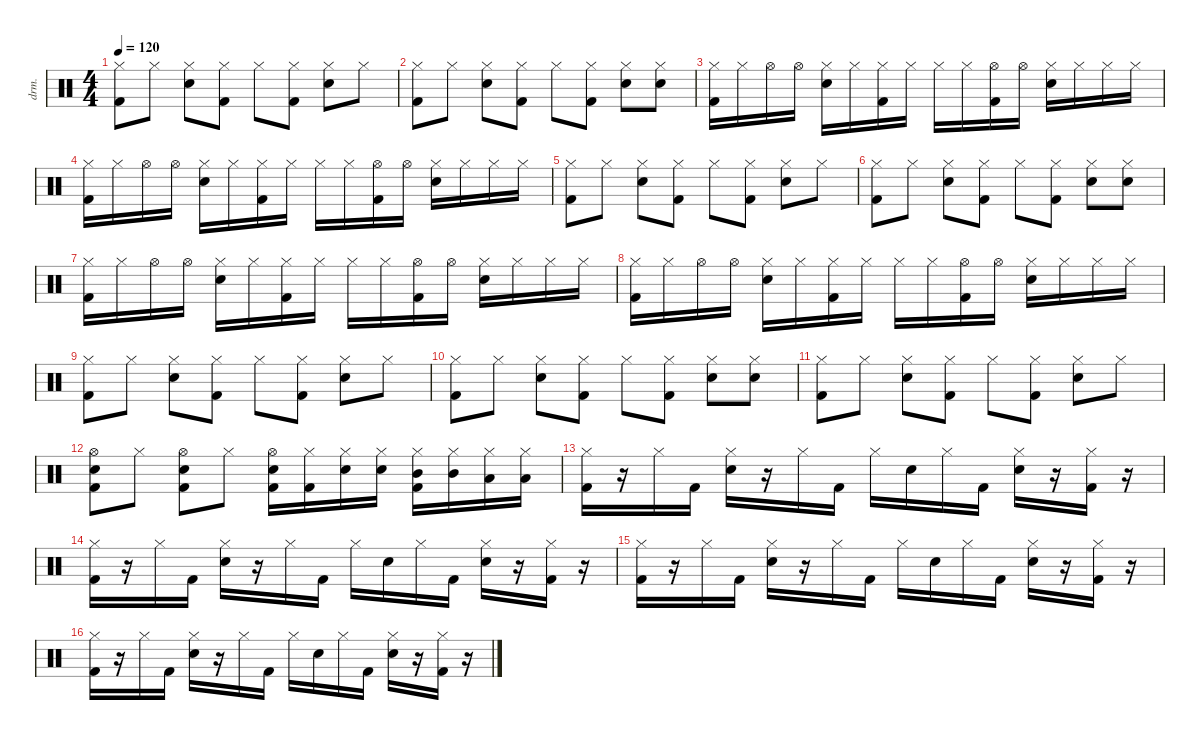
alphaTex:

\defaultSystemsLayout 4
\hideDynamics
\bracketExtendMode nobrackets
\otherSystemsTrackNameOrientation horizontal
\track ("Drumkit" "drm.") {instrument percussion}
\staff {score}
\articulation defaults
\ts (4 4)
\tempo 120
\clef neutral
\ks c
("Hi-Hat (closed)" "Kick (hit) 2").8{dy mf beam Down} "Hi-Hat (closed)".8{beam Down} ("Hi-Hat (closed)" "Snare (hit) 2").8{beam Down} ("Hi-Hat (closed)" "Kick (hit) 2").8{beam Down} "Hi-Hat (closed)".8{beam Down} ("Hi-Hat (closed)" "Kick (hit) 2").8{beam Down} ("Hi-Hat (closed)" "Snare (hit) 2").8{beam Down} "Hi-Hat (closed)".8{beam Down} |
("Hi-Hat (closed)" "Kick (hit) 2").8{beam Down} "Hi-Hat (closed)".8{beam Down} ("Hi-Hat (closed)" "Snare (hit) 2").8{beam Down} ("Hi-Hat (closed)" "Kick (hit) 2").8{beam Down} "Hi-Hat (closed)".8{beam Down} ("Hi-Hat (closed)" "Kick (hit) 2").8{beam Down} ("Hi-Hat (closed)" "Snare (hit) 2").8{beam Down} ("Snare (hit) 2" "Hi-Hat (closed)").8{beam Down} |
("Hi-Hat (closed)" "Kick (hit) 2").16{beam Down} "Hi-Hat (closed)".16{beam Down} "Hi-Hat (open)".16{beam Down} "Hi-Hat (open)".16{beam Down} ("Hi-Hat (closed)" "Snare (hit) 2").16{beam Down} "Hi-Hat (closed)".16{beam Down} ("Hi-Hat (closed)" "Kick (hit) 2").16{beam Down} "Hi-Hat (closed)".16{beam Down} "Hi-Hat (closed)".16{beam Down} "Hi-Hat (closed)".16{beam Down} ("Hi-Hat (open)" "Kick (hit) 2").16{beam Down} "Hi-Hat (open)".16{beam Down} ("Hi-Hat (closed)" "Snare (hit) 2").16{beam Down} "Hi-Hat (closed)".16{beam Down} "Hi-Hat (closed)".16{beam Down} "Hi-Hat (closed)".16{beam Down} |
("Hi-Hat (closed)" "Kick (hit) 2").16{beam Down} "Hi-Hat (closed)".16{beam Down} "Hi-Hat (open)".16{beam Down} "Hi-Hat (open)".16{beam Down} ("Hi-Hat (closed)" "Snare (hit) 2").16{beam Down} "Hi-Hat (closed)".16{beam Down} ("Hi-Hat (closed)" "Kick (hit) 2").16{beam Down} "Hi-Hat (closed)".16{beam Down} "Hi-Hat (closed)".16{beam Down} "Hi-Hat (closed)".16{beam Down} ("Hi-Hat (open)" "Kick (hit) 2").16{beam Down} "Hi-Hat (open)".16{beam Down} ("Hi-Hat (closed)" "Snare (hit) 2").16{beam Down} "Hi-Hat (closed)".16{beam Down} "Hi-Hat (closed)".16{beam Down} "Hi-Hat (closed)".16{beam Down} |
("Hi-Hat (closed)" "Kick (hit) 2").8{beam Down} "Hi-Hat (closed)".8{beam Down} ("Hi-Hat (closed)" "Snare (hit) 2").8{beam Down} ("Hi-Hat (closed)" "Kick (hit) 2").8{beam Down} "Hi-Hat (closed)".8{beam Down} ("Hi-Hat (closed)" "Kick (hit) 2").8{beam Down} ("Hi-Hat (closed)" "Snare (hit) 2").8{beam Down} "Hi-Hat (closed)".8{beam Down} |
("Hi-Hat (closed)" "Kick (hit) 2").8{beam Down} "Hi-Hat (closed)".8{beam Down} ("Hi-Hat (closed)" "Snare (hit) 2").8{beam Down} ("Hi-Hat (closed)" "Kick (hit) 2").8{beam Down} "Hi-Hat (closed)".8{beam Down} ("Hi-Hat (closed)" "Kick (hit) 2").8{beam Down} ("Hi-Hat (closed)" "Snare (hit) 2").8{beam Down} ("Snare (hit) 2" "Hi-Hat (closed)").8{beam Down} |
("Hi-Hat (closed)" "Kick (hit) 2").16{beam Down} "Hi-Hat (closed)".16{beam Down} "Hi-Hat (open)".16{beam Down} "Hi-Hat (open)".16{beam Down} ("Hi-Hat (closed)" "Snare (hit) 2").16{beam Down} "Hi-Hat (closed)".16{beam Down} ("Hi-Hat (closed)" "Kick (hit) 2").16{beam Down} "Hi-Hat (closed)".16{beam Down} "Hi-Hat (closed)".16{beam Down} "Hi-Hat (closed)".16{beam Down} ("Hi-Hat (open)" "Kick (hit) 2").16{beam Down} "Hi-Hat (open)".16{beam Down} ("Hi-Hat (closed)" "Snare (hit) 2").16{beam Down} "Hi-Hat (closed)".16{beam Down} "Hi-Hat (closed)".16{beam Down} "Hi-Hat (closed)".16{beam Down} |
("Hi-Hat (closed)" "Kick (hit) 2").16{beam Down} "Hi-Hat (closed)".16{beam Down} "Hi-Hat (open)".16{beam Down} "Hi-Hat (open)".16{beam Down} ("Hi-Hat (closed)" "Snare (hit) 2").16{beam Down} "Hi-Hat (closed)".16{beam Down} ("Hi-Hat (closed)" "Kick (hit) 2").16{beam Down} "Hi-Hat (closed)".16{beam Down} "Hi-Hat (closed)".16{beam Down} "Hi-Hat (closed)".16{beam Down} ("Hi-Hat (open)" "Kick (hit) 2").16{beam Down} "Hi-Hat (open)".16{beam Down} ("Hi-Hat (closed)" "Snare (hit) 2").16{beam Down} "Hi-Hat (closed)".16{beam Down} "Hi-Hat (closed)".16{beam Down} "Hi-Hat (closed)".16{beam Down} |
("Hi-Hat (closed)" "Kick (hit) 2").8{beam Down} "Hi-Hat (closed)".8{beam Down} ("Hi-Hat (closed)" "Snare (hit) 2").8{beam Down} ("Hi-Hat (closed)" "Kick (hit) 2").8{beam Down} "Hi-Hat (closed)".8{beam Down} ("Hi-Hat (closed)" "Kick (hit) 2").8{beam Down} ("Hi-Hat (closed)" "Snare (hit) 2").8{beam Down} "Hi-Hat (closed)".8{beam Down} |
("Hi-Hat (closed)" "Kick (hit) 2").8{beam Down} "Hi-Hat (closed)".8{beam Down} ("Hi-Hat (closed)" "Snare (hit) 2").8{beam Down} ("Hi-Hat (closed)" "Kick (hit) 2").8{beam Down} "Hi-Hat (closed)".8{beam Down} ("Hi-Hat (closed)" "Kick (hit) 2").8{beam Down} ("Hi-Hat (closed)" "Snare (hit) 2").8{beam Down} ("Snare (hit) 2" "Hi-Hat (closed)").8{beam Down} |
("Hi-Hat (closed)" "Kick (hit) 2").8{beam Down} "Hi-Hat (closed)".8{beam Down} ("Hi-Hat (closed)" "Snare (hit) 2").8{beam Down} ("Hi-Hat (closed)" "Kick (hit) 2").8{beam Down} "Hi-Hat (closed)".8{beam Down} ("Hi-Hat (closed)" "Kick (hit) 2").8{beam Down} ("Hi-Hat (closed)" "Snare (hit) 2").8{beam Down} "Hi-Hat (closed)".8{beam Down} |
("Hi-Hat (open)" "Snare (hit) 2" "Kick (hit) 2").8{beam Down} "Hi-Hat (closed)".8{beam Down} ("Hi-Hat (open)" "Snare (hit) 2" "Kick (hit) 2").8{beam Down} "Hi-Hat (closed)".8{beam Down} ("Hi-Hat (open)" "Kick (hit) 2" "Snare (hit) 2").16{beam Down} ("Hi-Hat (closed)" "Kick (hit) 2").16{beam Down} ("Hi-Hat (closed)" "Snare (hit) 2").16{beam Down} ("Snare (hit) 2" "Hi-Hat (closed)").16{beam Down} ("Mid Tom (hit)" "Kick (hit) 2" "Hi-Hat (closed)").16{beam Down} ("Mid Tom (hit)" "Hi-Hat (closed)").16{beam Down} ("Low Tom (hit)" "Hi-Hat (closed)").16{beam Down} ("Low Tom (hit)" "Hi-Hat (closed)").16{beam Down} |
("Hi-Hat (closed)" "Kick (hit) 2").16{beam Down} r.16{beam Down} "Hi-Hat (closed)".16{beam Down} "Kick (hit) 2".16{beam Down} ("Hi-Hat (closed)" "Snare (hit) 2").16{beam Down} r.16{beam Down} "Hi-Hat (closed)".16{beam Down} "Kick (hit) 2".16{beam Down} "Hi-Hat (closed)".16{beam Down} "Snare (hit) 2".16{beam Down} "Hi-Hat (closed)".16{beam Down} "Kick (hit) 2".16{beam Down} ("Hi-Hat (closed)" "Snare (hit) 2").16{beam Down} r.16{beam Down} ("Hi-Hat (closed)" "Kick (hit) 2").16{beam Down} r.16{beam Down} |
("Hi-Hat (closed)" "Kick (hit) 2").16{beam Down} r.16{beam Down} "Hi-Hat (closed)".16{beam Down} "Kick (hit) 2".16{beam Down} ("Hi-Hat (closed)" "Snare (hit) 2").16{beam Down} r.16{beam Down} "Hi-Hat (closed)".16{beam Down} "Kick (hit) 2".16{beam Down} "Hi-Hat (closed)".16{beam Down} "Snare (hit) 2".16{beam Down} "Hi-Hat (closed)".16{beam Down} "Kick (hit) 2".16{beam Down} ("Hi-Hat (closed)" "Snare (hit) 2").16{beam Down} r.16{beam Down} ("Hi-Hat (closed)" "Kick (hit) 2").16{beam Down} r.16{beam Down} |
("Hi-Hat (closed)" "Kick (hit) 2").16{beam Down} r.16{beam Down} "Hi-Hat (closed)".16{beam Down} "Kick (hit) 2".16{beam Down} ("Hi-Hat (closed)" "Snare (hit) 2").16{beam Down} r.16{beam Down} "Hi-Hat (closed)".16{beam Down} "Kick (hit) 2".16{beam Down} "Hi-Hat (closed)".16{beam Down} "Snare (hit) 2".16{beam Down} "Hi-Hat (closed)".16{beam Down} "Kick (hit) 2".16{beam Down} ("Hi-Hat (closed)" "Snare (hit) 2").16{beam Down} r.16{beam Down} ("Hi-Hat (closed)" "Kick (hit) 2").16{beam Down} r.16{beam Down} |
("Hi-Hat (closed)" "Kick (hit) 2").16{beam Down} r.16{beam Down} "Hi-Hat (closed)".16{beam Down} "Kick (hit) 2".16{beam Down} ("Hi-Hat (closed)" "Snare (hit) 2").16{beam Down} r.16{beam Down} "Hi-Hat (closed)".16{beam Down} "Kick (hit) 2".16{beam Down} "Hi-Hat (closed)".16{beam Down} "Snare (hit) 2".16{beam Down} "Hi-Hat (closed)".16{beam Down} "Kick (hit) 2".16{beam Down} ("Hi-Hat (closed)" "Snare (hit) 2").16{beam Down} r.16{beam Down} ("Hi-Hat (closed)" "Kick (hit) 2").16{beam Down} r.16{beam Down}
